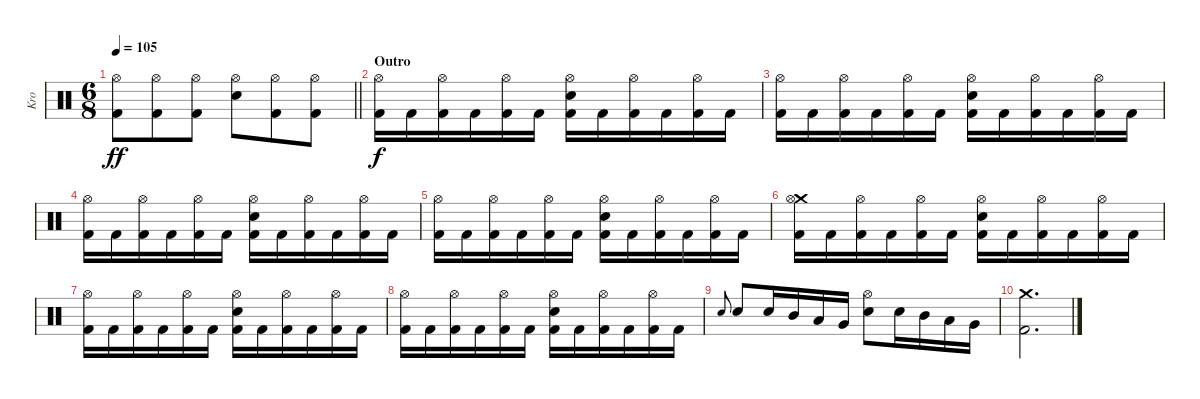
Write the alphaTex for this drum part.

\track ("Kro" "Kro") {instrument percussion}
\staff {score}
\articulation defaults
\ts (6 8)
\tempo 105
\clef neutral
\barLineRight lightlight
\ks c
("Hi-Hat (open)" "Kick (hit) 2").8{dy ff} ("Hi-Hat (open)" "Kick (hit) 2").8 ("Hi-Hat (open)" "Kick (hit) 2").8 ("Hi-Hat (open)" "Electric Snare (hit)").8 ("Hi-Hat (open)" "Kick (hit) 2").8 ("Hi-Hat (open)" "Kick (hit) 2").8 |
\section ("" "Outro")
("Hi-Hat (open)" "Kick (hit) 2").16{dy f} "Kick (hit) 2".16 ("Hi-Hat (open)" "Kick (hit) 2").16 "Kick (hit) 2".16 ("Hi-Hat (open)" "Kick (hit) 2").16 "Kick (hit) 2".16 ("Hi-Hat (open)" "Electric Snare (hit)" "Kick (hit) 2").16 "Kick (hit) 2".16 ("Hi-Hat (open)" "Kick (hit) 2").16 "Kick (hit) 2".16 ("Hi-Hat (open)" "Kick (hit) 2").16 "Kick (hit) 2".16 |
("Hi-Hat (open)" "Kick (hit) 2").16 "Kick (hit) 2".16 ("Hi-Hat (open)" "Kick (hit) 2").16 "Kick (hit) 2".16 ("Hi-Hat (open)" "Kick (hit) 2").16 "Kick (hit) 2".16 ("Hi-Hat (open)" "Electric Snare (hit)" "Kick (hit) 2").16 "Kick (hit) 2".16 ("Hi-Hat (open)" "Kick (hit) 2").16 "Kick (hit) 2".16 ("Hi-Hat (open)" "Kick (hit) 2").16 "Kick (hit) 2".16 |
("Hi-Hat (open)" "Kick (hit) 2").16 "Kick (hit) 2".16 ("Hi-Hat (open)" "Kick (hit) 2").16 "Kick (hit) 2".16 ("Hi-Hat (open)" "Kick (hit) 2").16 "Kick (hit) 2".16 ("Hi-Hat (open)" "Electric Snare (hit)" "Kick (hit) 2").16 "Kick (hit) 2".16 ("Hi-Hat (open)" "Kick (hit) 2").16 "Kick (hit) 2".16 ("Hi-Hat (open)" "Kick (hit) 2").16 "Kick (hit) 2".16 |
("Hi-Hat (open)" "Kick (hit) 2").16 "Kick (hit) 2".16 ("Hi-Hat (open)" "Kick (hit) 2").16 "Kick (hit) 2".16 ("Hi-Hat (open)" "Kick (hit) 2").16 "Kick (hit) 2".16 ("Hi-Hat (open)" "Electric Snare (hit)" "Kick (hit) 2").16 "Kick (hit) 2".16 ("Hi-Hat (open)" "Kick (hit) 2").16 "Kick (hit) 2".16 ("Hi-Hat (open)" "Kick (hit) 2").16 "Kick (hit) 2".16 |
("Crash medium (hit)" "Hi-Hat (open)" "Kick (hit) 2").16 "Kick (hit) 2".16 ("Hi-Hat (open)" "Kick (hit) 2").16 "Kick (hit) 2".16 ("Hi-Hat (open)" "Kick (hit) 2").16 "Kick (hit) 2".16 ("Hi-Hat (open)" "Electric Snare (hit)" "Kick (hit) 2").16 "Kick (hit) 2".16 ("Hi-Hat (open)" "Kick (hit) 2").16 "Kick (hit) 2".16 ("Hi-Hat (open)" "Kick (hit) 2").16 "Kick (hit) 2".16 |
("Hi-Hat (open)" "Kick (hit) 2").16 "Kick (hit) 2".16 ("Hi-Hat (open)" "Kick (hit) 2").16 "Kick (hit) 2".16 ("Hi-Hat (open)" "Kick (hit) 2").16 "Kick (hit) 2".16 ("Hi-Hat (open)" "Electric Snare (hit)" "Kick (hit) 2").16 "Kick (hit) 2".16 ("Hi-Hat (open)" "Kick (hit) 2").16 "Kick (hit) 2".16 ("Hi-Hat (open)" "Kick (hit) 2").16 "Kick (hit) 2".16 |
("Hi-Hat (open)" "Kick (hit) 2").16 "Kick (hit) 2".16 ("Hi-Hat (open)" "Kick (hit) 2").16 "Kick (hit) 2".16 ("Hi-Hat (open)" "Kick (hit) 2").16 "Kick (hit) 2".16 ("Hi-Hat (open)" "Electric Snare (hit)" "Kick (hit) 2").16 "Kick (hit) 2".16 ("Hi-Hat (open)" "Kick (hit) 2").16 "Kick (hit) 2".16 ("Hi-Hat (open)" "Kick (hit) 2").16 "Kick (hit) 2".16 |
"Electric Snare (hit)".8{gr onbeat} "Electric Snare (hit)".8 "Electric Snare (hit)".16 "Mid Tom (hit)".16 "Low Tom (hit)".16 "Very Low Tom (hit)".16 ("Hi-Hat (open)" "Electric Snare (hit)").8 "Electric Snare (hit)".16 "Mid Tom (hit)".16 "Low Tom (hit)".16 "Very Low Tom (hit)".16 |
("Crash medium (hit)" "Kick (hit) 2").2{d}
